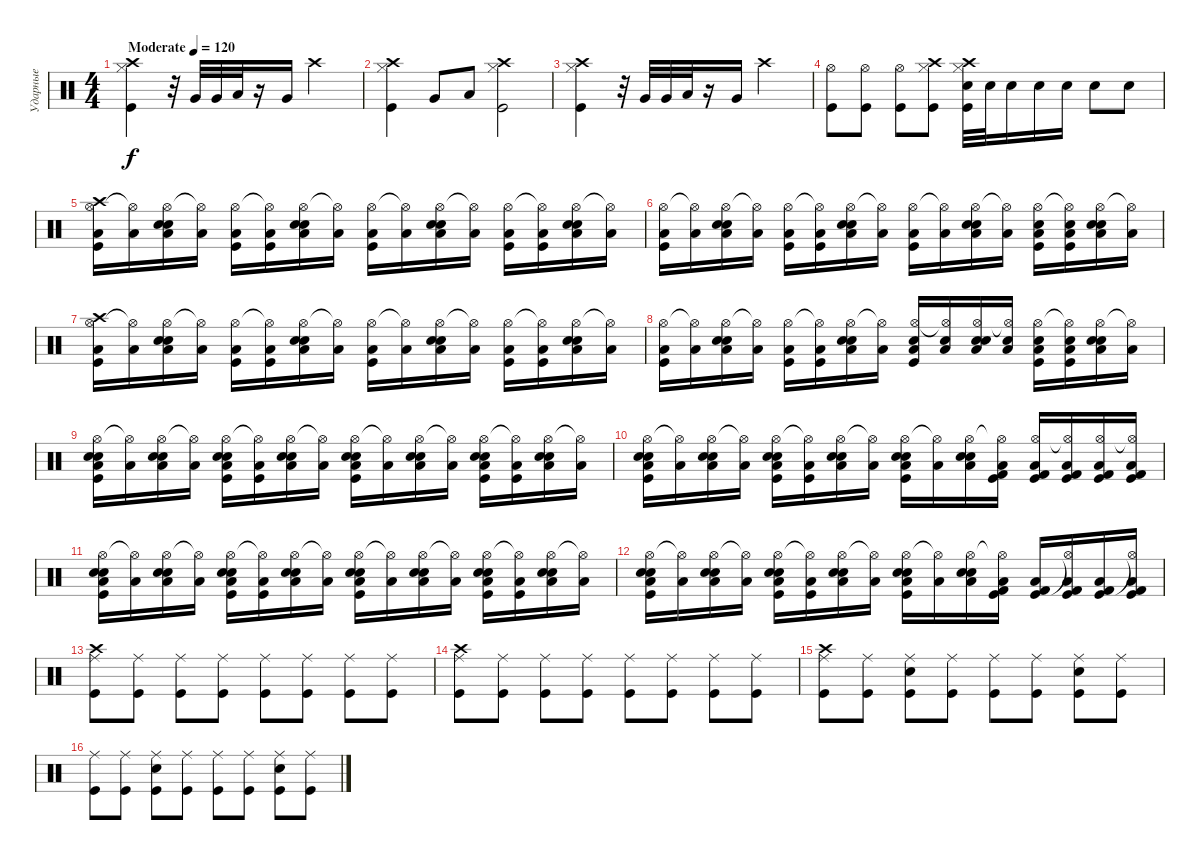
\track ("Ударные" "Ударные") {instrument percussion}
\staff {score}
\articulation defaults
\ts (4 4)
\tempo (120 "Moderate")
\clef neutral
\ks c
("Hi-Hat (closed)" "Crash high (hit)" "Kick (hit)").4{dy f} r.32 "Very Low Tom (hit)".32 "Very Low Tom (hit)".32 "Low Floor Tom (hit)".32 r.16 "Very Low Tom (hit)".16 "Crash high (hit)".2 |
("Hi-Hat (closed)" "Crash high (hit)" "Kick (hit)").4 "Very Low Tom (hit)".8 "Low Floor Tom (hit)".8 ("Hi-Hat (closed)" "Crash high (hit)" "Kick (hit)").2 |
("Hi-Hat (closed)" "Crash high (hit)" "Kick (hit)").4 r.32 "Very Low Tom (hit)".32 "Very Low Tom (hit)".32 "Low Floor Tom (hit)".32 r.16 "Very Low Tom (hit)".16 "Crash high (hit)".2 |
("Hi-Hat (open)" "Kick (hit)").8 ("Hi-Hat (open)" "Kick (hit)").8 ("Hi-Hat (open)" "Kick (hit)").8 ("Hi-Hat (closed)" "Crash high (hit)" "Kick (hit)").8 ("Hi-Hat (closed)" "Crash high (hit)" "Kick (hit)" "Electric Snare (hit)").32 "Electric Snare (hit)".32 "Electric Snare (hit)".16 "Electric Snare (hit)".16 "Electric Snare (hit)".16 "Electric Snare (hit)".8 "Electric Snare (hit)".8 |
("Hi-Hat (open)" "Crash high (hit)" "Kick (hit)" "Low Floor Tom (hit)").16 ("Hi-Hat (open)"{t} "Low Floor Tom (hit)").16 ("Hi-Hat (open)" "Electric Snare (hit)" "Electric Snare (hit)" "Low Floor Tom (hit)").16 ("Hi-Hat (open)"{t} "Low Floor Tom (hit)").16 ("Hi-Hat (open)" "Kick (hit)" "Low Floor Tom (hit)").16 ("Hi-Hat (open)"{t} "Kick (hit)" "Low Floor Tom (hit)").16 ("Hi-Hat (open)" "Electric Snare (hit)" "Electric Snare (hit)" "Low Floor Tom (hit)").16 ("Hi-Hat (open)"{t} "Low Floor Tom (hit)").16 ("Hi-Hat (open)" "Kick (hit)" "Low Floor Tom (hit)").16 ("Hi-Hat (open)"{t} "Low Floor Tom (hit)").16 ("Hi-Hat (open)" "Electric Snare (hit)" "Electric Snare (hit)" "Low Floor Tom (hit)").16 ("Hi-Hat (open)"{t} "Low Floor Tom (hit)").16 ("Hi-Hat (open)" "Kick (hit)" "Low Floor Tom (hit)").16 ("Hi-Hat (open)"{t} "Kick (hit)" "Low Floor Tom (hit)").16 ("Hi-Hat (open)" "Electric Snare (hit)" "Electric Snare (hit)" "Low Floor Tom (hit)").16 ("Hi-Hat (open)"{t} "Low Floor Tom (hit)").16 |
("Hi-Hat (open)" "Kick (hit)" "Low Floor Tom (hit)").16 ("Hi-Hat (open)"{t} "Low Floor Tom (hit)").16 ("Hi-Hat (open)" "Electric Snare (hit)" "Electric Snare (hit)" "Low Floor Tom (hit)").16 ("Hi-Hat (open)"{t} "Low Floor Tom (hit)").16 ("Hi-Hat (open)" "Kick (hit)" "Low Floor Tom (hit)").16 ("Hi-Hat (open)"{t} "Kick (hit)" "Low Floor Tom (hit)").16 ("Hi-Hat (open)" "Electric Snare (hit)" "Electric Snare (hit)" "Low Floor Tom (hit)").16 ("Hi-Hat (open)"{t} "Low Floor Tom (hit)").16 ("Hi-Hat (open)" "Kick (hit)" "Low Floor Tom (hit)").16 ("Hi-Hat (open)"{t} "Low Floor Tom (hit)").16 ("Hi-Hat (open)" "Electric Snare (hit)" "Electric Snare (hit)" "Low Floor Tom (hit)").16 ("Hi-Hat (open)"{t} "Low Floor Tom (hit)").16 ("Hi-Hat (open)" "Electric Snare (hit)" "Kick (hit)" "Low Floor Tom (hit)").16 ("Hi-Hat (open)"{t} "Electric Snare (hit)" "Kick (hit)" "Low Floor Tom (hit)").16 ("Hi-Hat (open)" "Electric Snare (hit)" "Electric Snare (hit)" "Low Floor Tom (hit)").16 ("Hi-Hat (open)"{t} "Low Floor Tom (hit)").16 |
("Hi-Hat (open)" "Crash high (hit)" "Kick (hit)" "Low Floor Tom (hit)").16 ("Hi-Hat (open)"{t} "Low Floor Tom (hit)").16 ("Hi-Hat (open)" "Electric Snare (hit)" "Electric Snare (hit)" "Low Floor Tom (hit)").16 ("Hi-Hat (open)"{t} "Low Floor Tom (hit)").16 ("Hi-Hat (open)" "Kick (hit)" "Low Floor Tom (hit)").16 ("Hi-Hat (open)"{t} "Kick (hit)" "Low Floor Tom (hit)").16 ("Hi-Hat (open)" "Electric Snare (hit)" "Electric Snare (hit)" "Low Floor Tom (hit)").16 ("Hi-Hat (open)"{t} "Low Floor Tom (hit)").16 ("Hi-Hat (open)" "Kick (hit)" "Low Floor Tom (hit)").16 ("Hi-Hat (open)"{t} "Low Floor Tom (hit)").16 ("Hi-Hat (open)" "Electric Snare (hit)" "Electric Snare (hit)" "Low Floor Tom (hit)").16 ("Hi-Hat (open)"{t} "Low Floor Tom (hit)").16 ("Hi-Hat (open)" "Kick (hit)" "Low Floor Tom (hit)").16 ("Hi-Hat (open)"{t} "Kick (hit)" "Low Floor Tom (hit)").16 ("Hi-Hat (open)" "Electric Snare (hit)" "Electric Snare (hit)" "Low Floor Tom (hit)").16 ("Hi-Hat (open)"{t} "Low Floor Tom (hit)").16 |
("Hi-Hat (open)" "Kick (hit)" "Low Floor Tom (hit)").16 ("Hi-Hat (open)"{t} "Low Floor Tom (hit)").16 ("Hi-Hat (open)" "Electric Snare (hit)" "Electric Snare (hit)" "Low Floor Tom (hit)").16 ("Hi-Hat (open)"{t} "Low Floor Tom (hit)").16 ("Hi-Hat (open)" "Kick (hit)" "Low Floor Tom (hit)").16 ("Hi-Hat (open)"{t} "Kick (hit)" "Low Floor Tom (hit)").16 ("Hi-Hat (open)" "Electric Snare (hit)" "Electric Snare (hit)" "Low Floor Tom (hit)").16 ("Hi-Hat (open)"{t} "Low Floor Tom (hit)").16 ("Hi-Hat (open)" "Electric Snare (hit)" "Kick (hit)" "Low Floor Tom (hit)").16 ("Hi-Hat (open)"{t} "Electric Snare (hit)" "Low Floor Tom (hit)").16 ("Hi-Hat (open)" "Electric Snare (hit)" "Electric Snare (hit)" "Low Floor Tom (hit)").16 ("Hi-Hat (open)"{t} "Electric Snare (hit)" "Low Floor Tom (hit)").16 ("Hi-Hat (open)" "Electric Snare (hit)" "Kick (hit)" "Low Floor Tom (hit)").16 ("Hi-Hat (open)"{t} "Electric Snare (hit)" "Kick (hit)" "Low Floor Tom (hit)").16 ("Hi-Hat (open)" "Electric Snare (hit)" "Electric Snare (hit)" "Low Floor Tom (hit)").16 ("Hi-Hat (open)"{t} "Low Floor Tom (hit)").16 |
("Hi-Hat (open)" "Electric Snare (hit)" "Electric Snare (hit)" "Kick (hit)" "Low Floor Tom (hit)").16 ("Hi-Hat (open)"{t} "Low Floor Tom (hit)").16 ("Hi-Hat (open)" "Electric Snare (hit)" "Electric Snare (hit)" "Low Floor Tom (hit)").16 ("Hi-Hat (open)"{t} "Low Floor Tom (hit)").16 ("Hi-Hat (open)" "Electric Snare (hit)" "Electric Snare (hit)" "Kick (hit)" "Low Floor Tom (hit)").16 ("Hi-Hat (open)"{t} "Kick (hit)" "Low Floor Tom (hit)").16 ("Hi-Hat (open)" "Electric Snare (hit)" "Electric Snare (hit)" "Low Floor Tom (hit)").16 ("Hi-Hat (open)"{t} "Low Floor Tom (hit)").16 ("Hi-Hat (open)" "Electric Snare (hit)" "Electric Snare (hit)" "Kick (hit)" "Low Floor Tom (hit)").16 ("Hi-Hat (open)"{t} "Low Floor Tom (hit)").16 ("Hi-Hat (open)" "Electric Snare (hit)" "Electric Snare (hit)" "Low Floor Tom (hit)").16 ("Hi-Hat (open)"{t} "Low Floor Tom (hit)").16 ("Hi-Hat (open)" "Electric Snare (hit)" "Electric Snare (hit)" "Kick (hit)" "Low Floor Tom (hit)").16 ("Hi-Hat (open)"{t} "Kick (hit)" "Low Floor Tom (hit)").16 ("Hi-Hat (open)" "Electric Snare (hit)" "Electric Snare (hit)" "Low Floor Tom (hit)").16 ("Hi-Hat (open)"{t} "Low Floor Tom (hit)").16 |
("Hi-Hat (open)" "Electric Snare (hit)" "Electric Snare (hit)" "Kick (hit)" "Low Floor Tom (hit)").16 ("Hi-Hat (open)"{t} "Low Floor Tom (hit)").16 ("Hi-Hat (open)" "Electric Snare (hit)" "Electric Snare (hit)" "Low Floor Tom (hit)").16 ("Hi-Hat (open)"{t} "Low Floor Tom (hit)").16 ("Hi-Hat (open)" "Electric Snare (hit)" "Electric Snare (hit)" "Kick (hit)" "Low Floor Tom (hit)").16 ("Hi-Hat (open)"{t} "Kick (hit)" "Low Floor Tom (hit)").16 ("Hi-Hat (open)" "Electric Snare (hit)" "Electric Snare (hit)" "Low Floor Tom (hit)").16 ("Hi-Hat (open)"{t} "Low Floor Tom (hit)").16 ("Hi-Hat (open)" "Electric Snare (hit)" "Electric Snare (hit)" "Kick (hit)" "Low Floor Tom (hit)").16 ("Hi-Hat (open)"{t} "Low Floor Tom (hit)").16 ("Hi-Hat (open)" "Electric Snare (hit)" "Electric Snare (hit)" "Low Floor Tom (hit)").16 ("Hi-Hat (open)"{t} "Kick (hit) 2" "Kick (hit)" "Low Floor Tom (hit)").16 ("Hi-Hat (open)" "Kick (hit) 2" "Kick (hit)" "Low Floor Tom (hit)").16 ("Hi-Hat (open)"{t} "Kick (hit) 2" "Kick (hit)" "Low Floor Tom (hit)").16 ("Hi-Hat (open)" "Kick (hit) 2" "Kick (hit)" "Low Floor Tom (hit)").16 ("Hi-Hat (open)"{t} "Kick (hit) 2" "Kick (hit)" "Low Floor Tom (hit)").16 |
("Hi-Hat (open)" "Electric Snare (hit)" "Electric Snare (hit)" "Kick (hit)" "Low Floor Tom (hit)").16 ("Hi-Hat (open)"{t} "Low Floor Tom (hit)").16 ("Hi-Hat (open)" "Electric Snare (hit)" "Electric Snare (hit)" "Low Floor Tom (hit)").16 ("Hi-Hat (open)"{t} "Low Floor Tom (hit)").16 ("Hi-Hat (open)" "Electric Snare (hit)" "Electric Snare (hit)" "Kick (hit)" "Low Floor Tom (hit)").16 ("Hi-Hat (open)"{t} "Kick (hit)" "Low Floor Tom (hit)").16 ("Hi-Hat (open)" "Electric Snare (hit)" "Electric Snare (hit)" "Low Floor Tom (hit)").16 ("Hi-Hat (open)"{t} "Low Floor Tom (hit)").16 ("Hi-Hat (open)" "Electric Snare (hit)" "Electric Snare (hit)" "Kick (hit)" "Low Floor Tom (hit)").16 ("Hi-Hat (open)"{t} "Low Floor Tom (hit)").16 ("Hi-Hat (open)" "Electric Snare (hit)" "Electric Snare (hit)" "Low Floor Tom (hit)").16 ("Hi-Hat (open)"{t} "Low Floor Tom (hit)").16 ("Hi-Hat (open)" "Electric Snare (hit)" "Electric Snare (hit)" "Kick (hit)" "Low Floor Tom (hit)").16 ("Hi-Hat (open)"{t} "Kick (hit)" "Low Floor Tom (hit)").16 ("Hi-Hat (open)" "Electric Snare (hit)" "Electric Snare (hit)" "Low Floor Tom (hit)").16 ("Hi-Hat (open)"{t} "Low Floor Tom (hit)").16 |
("Hi-Hat (open)" "Electric Snare (hit)" "Electric Snare (hit)" "Kick (hit)" "Low Floor Tom (hit)").16 ("Hi-Hat (open)"{t} "Low Floor Tom (hit)").16 ("Hi-Hat (open)" "Electric Snare (hit)" "Electric Snare (hit)" "Low Floor Tom (hit)").16 ("Hi-Hat (open)"{t} "Low Floor Tom (hit)").16 ("Hi-Hat (open)" "Electric Snare (hit)" "Electric Snare (hit)" "Kick (hit)" "Low Floor Tom (hit)").16 ("Hi-Hat (open)"{t} "Kick (hit)" "Low Floor Tom (hit)").16 ("Hi-Hat (open)" "Electric Snare (hit)" "Electric Snare (hit)" "Low Floor Tom (hit)").16 ("Hi-Hat (open)"{t} "Low Floor Tom (hit)").16 ("Hi-Hat (open)" "Electric Snare (hit)" "Electric Snare (hit)" "Kick (hit)" "Low Floor Tom (hit)").16 ("Hi-Hat (open)"{t} "Low Floor Tom (hit)").16 ("Hi-Hat (open)" "Electric Snare (hit)" "Electric Snare (hit)" "Low Floor Tom (hit)").16 ("Hi-Hat (open)"{t} "Kick (hit) 2" "Kick (hit)" "Low Floor Tom (hit)").16 ("Kick (hit) 2" "Kick (hit)" "Low Floor Tom (hit)").16 ("Hi-Hat (open)"{t} "Kick (hit) 2" "Kick (hit)" "Low Floor Tom (hit)").16 ("Kick (hit) 2" "Kick (hit)" "Low Floor Tom (hit)").16 ("Hi-Hat (open)"{t} "Kick (hit) 2" "Kick (hit)" "Low Floor Tom (hit)").16 |
("Ride (middle)" "Crash high (hit)" "Kick (hit)").8 ("Ride (middle)" "Kick (hit)").8 ("Ride (middle)" "Kick (hit)").8 ("Ride (middle)" "Kick (hit)").8 ("Ride (middle)" "Kick (hit)").8 ("Ride (middle)" "Kick (hit)").8 ("Ride (middle)" "Kick (hit)").8 ("Ride (middle)" "Kick (hit)").8 |
("Ride (middle)" "Crash high (hit)" "Kick (hit)").8 ("Ride (middle)" "Kick (hit)").8 ("Ride (middle)" "Kick (hit)").8 ("Ride (middle)" "Kick (hit)").8 ("Ride (middle)" "Kick (hit)").8 ("Ride (middle)" "Kick (hit)").8 ("Ride (middle)" "Kick (hit)").8 ("Ride (middle)" "Kick (hit)").8 |
("Ride (middle)" "Crash high (hit)" "Kick (hit)").8 ("Ride (middle)" "Kick (hit)").8 ("Ride (middle)" "Kick (hit)" "Electric Snare (hit)").8 ("Ride (middle)" "Kick (hit)").8 ("Ride (middle)" "Kick (hit)").8 ("Ride (middle)" "Kick (hit)").8 ("Ride (middle)" "Kick (hit)" "Electric Snare (hit)").8 ("Ride (middle)" "Kick (hit)").8 |
("Ride (middle)" "Kick (hit)").8 ("Ride (middle)" "Kick (hit)").8 ("Ride (middle)" "Kick (hit)" "Electric Snare (hit)").8 ("Ride (middle)" "Kick (hit)").8 ("Ride (middle)" "Kick (hit)").8 ("Ride (middle)" "Kick (hit)").8 ("Ride (middle)" "Kick (hit)" "Electric Snare (hit)").8 ("Ride (middle)" "Kick (hit)").8
